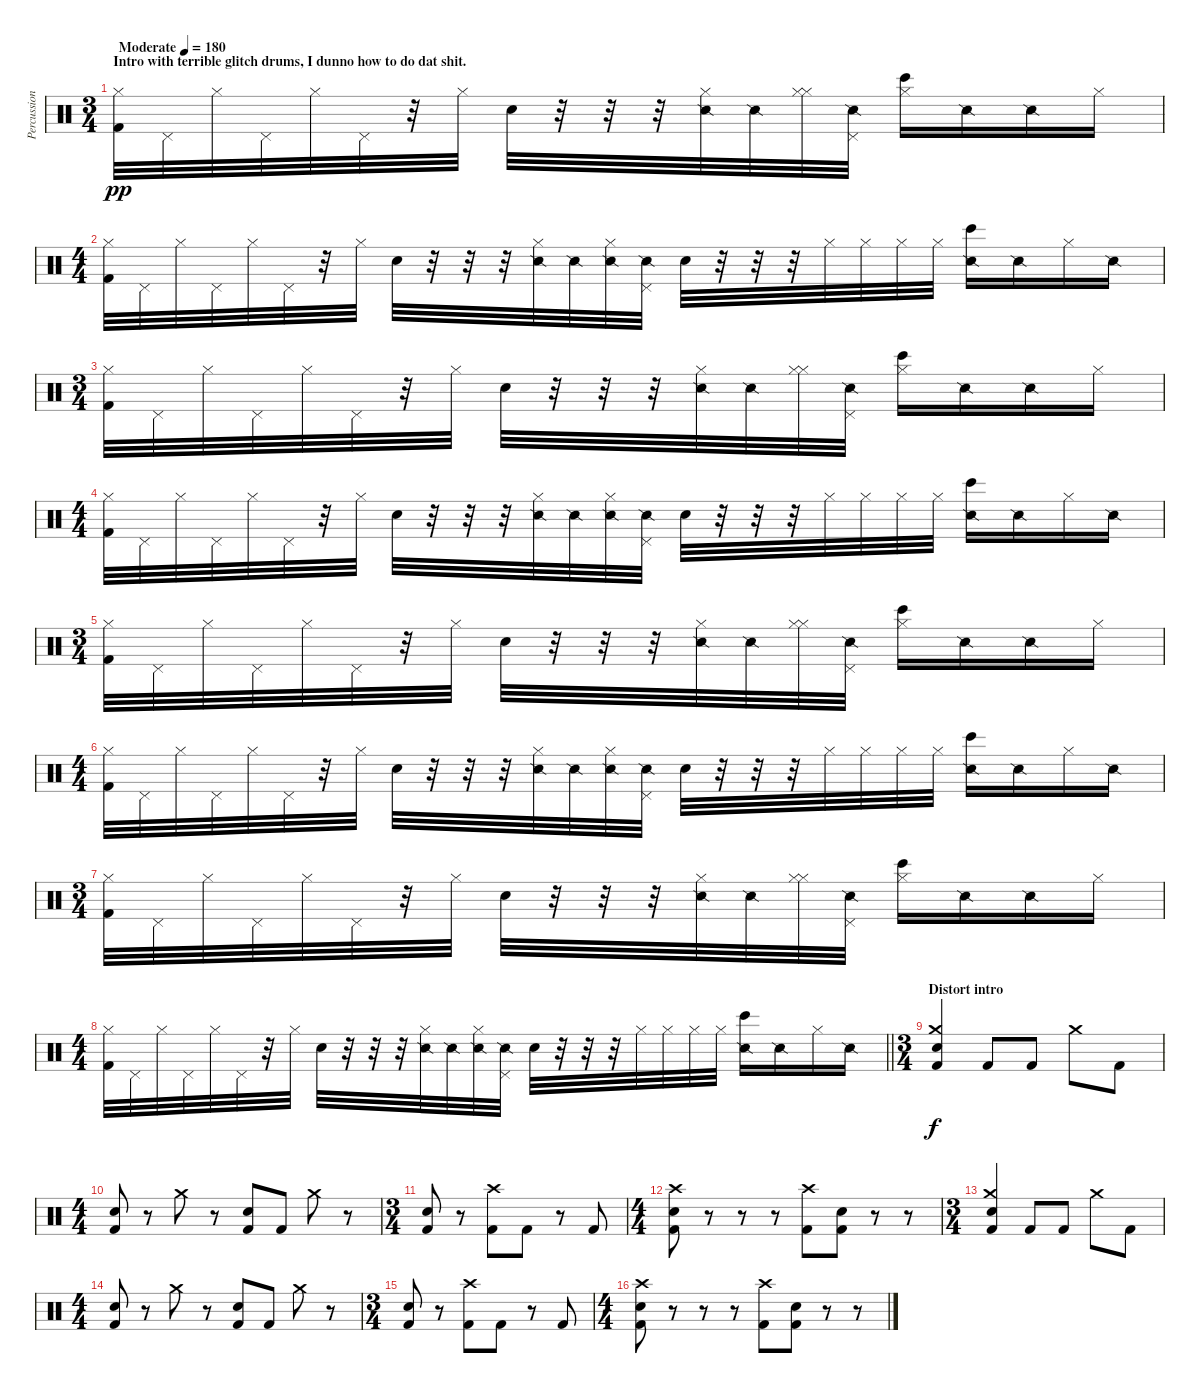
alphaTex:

\track ("Percussion" "Percussion") {instrument percussion}
\staff {score}
\articulation defaults
\ts (3 4)
\section ("" "Intro with terrible glitch drums, I dunno how to do dat shit.")
\tempo (180 "Moderate")
\clef neutral
\ks c
("Hi-Hat (closed)" "Kick (hit) 2").32{dy pp} "Pedal Hi-Hat (hit)".32 "Hi-Hat (closed)".32 "Pedal Hi-Hat (hit)".32 "Hi-Hat (closed)".32 "Pedal Hi-Hat (hit)".32 r.32 "Hi-Hat (closed)".32 "Snare (hit) 2".32 r.32 r.32 r.32 ("Snare (side stick) 2" "Hi-Hat (closed)").32 "Snare (side stick) 2".32 ("Hi-Hat (closed)" "Hi-Hat (closed)").32 ("Snare (side stick) 2" "Pedal Hi-Hat (hit)").32 ("Hi-Hat (closed)" "Bongo High (hit)").16 "Snare (side stick) 2".16 "Snare (side stick) 2".16 "Hi-Hat (closed)".16 |
\ts (4 4)
("Hi-Hat (closed)" "Kick (hit) 2").32 "Pedal Hi-Hat (hit)".32 "Hi-Hat (closed)".32 "Pedal Hi-Hat (hit)".32 "Hi-Hat (closed)".32 "Pedal Hi-Hat (hit)".32 r.32 "Hi-Hat (closed)".32 "Snare (hit) 2".32 r.32 r.32 r.32 ("Snare (side stick) 2" "Hi-Hat (closed)").32 "Snare (side stick) 2".32 ("Snare (side stick) 2" "Hi-Hat (closed)").32 ("Snare (side stick) 2" "Pedal Hi-Hat (hit)").32 "Hand Clap (hit)".32 r.32 r.32 r.32 "Hi-Hat (closed)".32 "Hi-Hat (closed)".32 "Hi-Hat (closed)".32 "Hi-Hat (closed)".32 ("Snare (side stick) 2" "Bongo High (hit)").16 "Snare (side stick) 2".16 "Hi-Hat (closed)".16 "Snare (side stick) 2".16 |
\ts (3 4)
("Hi-Hat (closed)" "Kick (hit) 2").32 "Pedal Hi-Hat (hit)".32 "Hi-Hat (closed)".32 "Pedal Hi-Hat (hit)".32 "Hi-Hat (closed)".32 "Pedal Hi-Hat (hit)".32 r.32 "Hi-Hat (closed)".32 "Snare (hit) 2".32 r.32 r.32 r.32 ("Snare (side stick) 2" "Hi-Hat (closed)").32 "Snare (side stick) 2".32 ("Hi-Hat (closed)" "Hi-Hat (closed)").32 ("Snare (side stick) 2" "Pedal Hi-Hat (hit)").32 ("Hi-Hat (closed)" "Bongo High (hit)").16 "Snare (side stick) 2".16 "Snare (side stick) 2".16 "Hi-Hat (closed)".16 |
\ts (4 4)
("Hi-Hat (closed)" "Kick (hit) 2").32 "Pedal Hi-Hat (hit)".32 "Hi-Hat (closed)".32 "Pedal Hi-Hat (hit)".32 "Hi-Hat (closed)".32 "Pedal Hi-Hat (hit)".32 r.32 "Hi-Hat (closed)".32 "Snare (hit) 2".32 r.32 r.32 r.32 ("Snare (side stick) 2" "Hi-Hat (closed)").32 "Snare (side stick) 2".32 ("Snare (side stick) 2" "Hi-Hat (closed)").32 ("Snare (side stick) 2" "Pedal Hi-Hat (hit)").32 "Hand Clap (hit)".32 r.32 r.32 r.32 "Hi-Hat (closed)".32 "Hi-Hat (closed)".32 "Hi-Hat (closed)".32 "Hi-Hat (closed)".32 ("Snare (side stick) 2" "Bongo High (hit)").16 "Snare (side stick) 2".16 "Hi-Hat (closed)".16 "Snare (side stick) 2".16 |
\ts (3 4)
("Hi-Hat (closed)" "Kick (hit) 2").32 "Pedal Hi-Hat (hit)".32 "Hi-Hat (closed)".32 "Pedal Hi-Hat (hit)".32 "Hi-Hat (closed)".32 "Pedal Hi-Hat (hit)".32 r.32 "Hi-Hat (closed)".32 "Snare (hit) 2".32 r.32 r.32 r.32 ("Snare (side stick) 2" "Hi-Hat (closed)").32 "Snare (side stick) 2".32 ("Hi-Hat (closed)" "Hi-Hat (closed)").32 ("Snare (side stick) 2" "Pedal Hi-Hat (hit)").32 ("Hi-Hat (closed)" "Bongo High (hit)").16 "Snare (side stick) 2".16 "Snare (side stick) 2".16 "Hi-Hat (closed)".16 |
\ts (4 4)
("Hi-Hat (closed)" "Kick (hit) 2").32 "Pedal Hi-Hat (hit)".32 "Hi-Hat (closed)".32 "Pedal Hi-Hat (hit)".32 "Hi-Hat (closed)".32 "Pedal Hi-Hat (hit)".32 r.32 "Hi-Hat (closed)".32 "Snare (hit) 2".32 r.32 r.32 r.32 ("Snare (side stick) 2" "Hi-Hat (closed)").32 "Snare (side stick) 2".32 ("Snare (side stick) 2" "Hi-Hat (closed)").32 ("Snare (side stick) 2" "Pedal Hi-Hat (hit)").32 "Hand Clap (hit)".32 r.32 r.32 r.32 "Hi-Hat (closed)".32 "Hi-Hat (closed)".32 "Hi-Hat (closed)".32 "Hi-Hat (closed)".32 ("Snare (side stick) 2" "Bongo High (hit)").16 "Snare (side stick) 2".16 "Hi-Hat (closed)".16 "Snare (side stick) 2".16 |
\ts (3 4)
("Hi-Hat (closed)" "Kick (hit) 2").32 "Pedal Hi-Hat (hit)".32 "Hi-Hat (closed)".32 "Pedal Hi-Hat (hit)".32 "Hi-Hat (closed)".32 "Pedal Hi-Hat (hit)".32 r.32 "Hi-Hat (closed)".32 "Snare (hit) 2".32 r.32 r.32 r.32 ("Snare (side stick) 2" "Hi-Hat (closed)").32 "Snare (side stick) 2".32 ("Hi-Hat (closed)" "Hi-Hat (closed)").32 ("Snare (side stick) 2" "Pedal Hi-Hat (hit)").32 ("Hi-Hat (closed)" "Bongo High (hit)").16 "Snare (side stick) 2".16 "Snare (side stick) 2".16 "Hi-Hat (closed)".16 |
\ts (4 4)
\barLineRight lightlight
("Hi-Hat (closed)" "Kick (hit) 2").32 "Pedal Hi-Hat (hit)".32 "Hi-Hat (closed)".32 "Pedal Hi-Hat (hit)".32 "Hi-Hat (closed)".32 "Pedal Hi-Hat (hit)".32 r.32 "Hi-Hat (closed)".32 "Snare (hit) 2".32 r.32 r.32 r.32 ("Snare (side stick) 2" "Hi-Hat (closed)").32 "Snare (side stick) 2".32 ("Snare (side stick) 2" "Hi-Hat (closed)").32 ("Snare (side stick) 2" "Pedal Hi-Hat (hit)").32 "Hand Clap (hit)".32 r.32 r.32 r.32 "Hi-Hat (closed)".32 "Hi-Hat (closed)".32 "Hi-Hat (closed)".32 "Hi-Hat (closed)".32 ("Snare (side stick) 2" "Bongo High (hit)").16 "Snare (side stick) 2".16 "Hi-Hat (closed)".16 "Snare (side stick) 2".16 |
\ts (3 4)
\section ("" "Distort intro")
("Crash medium (hit)" "Electric Snare (hit)" "Kick (hit) 2").4{dy f} "Kick (hit) 2".8 "Kick (hit) 2".8 "Crash medium (hit)".8 "Kick (hit) 2".8 |
\ts (4 4)
("Electric Snare (hit)" "Kick (hit) 2").8 r.8 "Crash medium (hit)".8 r.8 ("Electric Snare (hit)" "Kick (hit) 2").8 "Kick (hit) 2".8 "Crash medium (hit)".8 r.8 |
\ts (3 4)
("Electric Snare (hit)" "Kick (hit) 2").8 r.8 ("Crash high (hit)" "Kick (hit) 2").8 "Kick (hit) 2".8 r.8 "Kick (hit) 2".8 |
\ts (4 4)
("Crash high (hit)" "Electric Snare (hit)" "Kick (hit) 2").8 r.8 r.8 r.8 ("Crash high (hit)" "Kick (hit) 2").8 ("Electric Snare (hit)" "Kick (hit) 2").8 r.8 r.8 |
\ts (3 4)
("Crash medium (hit)" "Electric Snare (hit)" "Kick (hit) 2").4 "Kick (hit) 2".8 "Kick (hit) 2".8 "Crash medium (hit)".8 "Kick (hit) 2".8 |
\ts (4 4)
("Electric Snare (hit)" "Kick (hit) 2").8 r.8 "Crash medium (hit)".8 r.8 ("Electric Snare (hit)" "Kick (hit) 2").8 "Kick (hit) 2".8 "Crash medium (hit)".8 r.8 |
\ts (3 4)
("Electric Snare (hit)" "Kick (hit) 2").8 r.8 ("Crash high (hit)" "Kick (hit) 2").8 "Kick (hit) 2".8 r.8 "Kick (hit) 2".8 |
\ts (4 4)
("Crash high (hit)" "Electric Snare (hit)" "Kick (hit) 2").8 r.8 r.8 r.8 ("Crash high (hit)" "Kick (hit) 2").8 ("Electric Snare (hit)" "Kick (hit) 2").8 r.8 r.8
